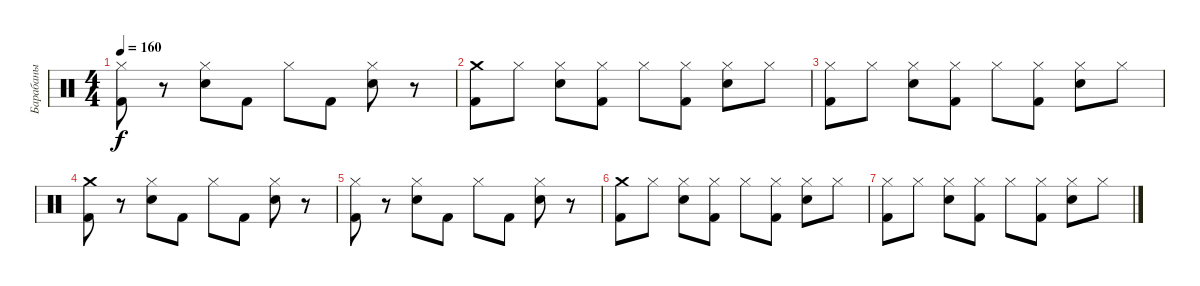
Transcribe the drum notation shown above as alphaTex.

\track ("Барабаны" "Барабаны") {instrument percussion}
\staff {score}
\articulation defaults
\ts (4 4)
\tempo 160
\clef neutral
\ks c
("Hi-Hat (closed)" "Kick (hit) 2").8{dy f} r.8 ("Hi-Hat (closed)" "Snare (hit) 2").8 "Kick (hit) 2".8 "Hi-Hat (closed)".8 "Kick (hit) 2".8 ("Hi-Hat (closed)" "Snare (hit) 2").8 r.8 |
("Crash medium (hit)" "Kick (hit) 2").8 "Hi-Hat (closed)".8 ("Hi-Hat (closed)" "Snare (hit) 2").8 ("Hi-Hat (closed)" "Kick (hit) 2").8 "Hi-Hat (closed)".8 ("Hi-Hat (closed)" "Kick (hit) 2").8 ("Hi-Hat (closed)" "Snare (hit) 2").8 "Hi-Hat (closed)".8 |
("Hi-Hat (closed)" "Kick (hit) 2").8 "Hi-Hat (closed)".8 ("Hi-Hat (closed)" "Snare (hit) 2").8 ("Hi-Hat (closed)" "Kick (hit) 2").8 "Hi-Hat (closed)".8 ("Hi-Hat (closed)" "Kick (hit) 2").8 ("Hi-Hat (closed)" "Snare (hit) 2").8 "Hi-Hat (closed)".8 |
("Crash medium (hit)" "Kick (hit) 2").8 r.8 ("Hi-Hat (closed)" "Snare (hit) 2").8 "Kick (hit) 2".8 "Hi-Hat (closed)".8 "Kick (hit) 2".8 ("Hi-Hat (closed)" "Snare (hit) 2").8 r.8 |
("Hi-Hat (closed)" "Kick (hit) 2").8 r.8 ("Hi-Hat (closed)" "Snare (hit) 2").8 "Kick (hit) 2".8 "Hi-Hat (closed)".8 "Kick (hit) 2".8 ("Hi-Hat (closed)" "Snare (hit) 2").8 r.8 |
("Crash medium (hit)" "Kick (hit) 2").8 "Hi-Hat (closed)".8 ("Hi-Hat (closed)" "Snare (hit) 2").8 ("Hi-Hat (closed)" "Kick (hit) 2").8 "Hi-Hat (closed)".8 ("Hi-Hat (closed)" "Kick (hit) 2").8 ("Hi-Hat (closed)" "Snare (hit) 2").8 "Hi-Hat (closed)".8 |
("Hi-Hat (closed)" "Kick (hit) 2").8 "Hi-Hat (closed)".8 ("Hi-Hat (closed)" "Snare (hit) 2").8 ("Hi-Hat (closed)" "Kick (hit) 2").8 "Hi-Hat (closed)".8 ("Hi-Hat (closed)" "Kick (hit) 2").8 ("Hi-Hat (closed)" "Snare (hit) 2").8 "Hi-Hat (closed)".8
